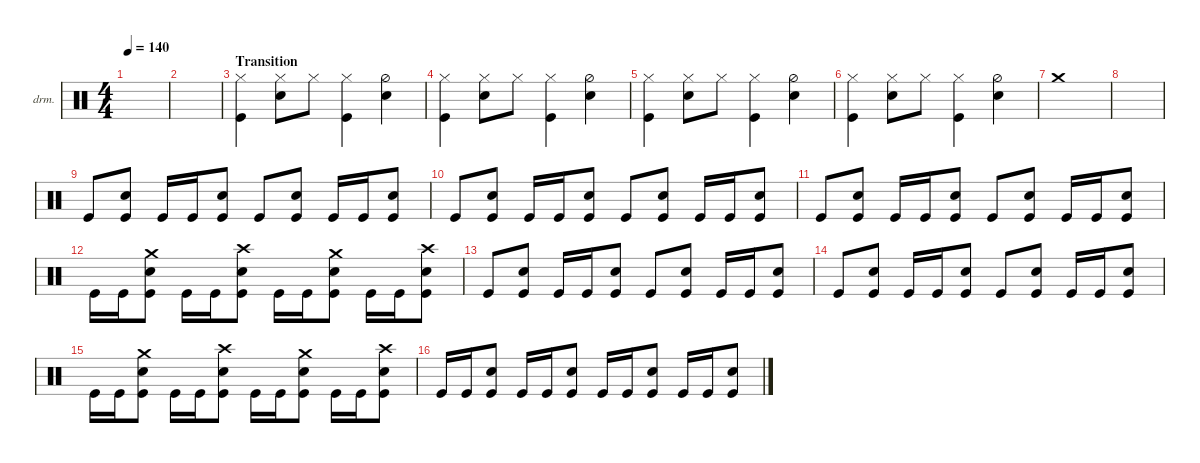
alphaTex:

\defaultSystemsLayout 4
\hideDynamics
\bracketExtendMode nobrackets
\firstSystemTrackNameOrientation horizontal
\otherSystemsTrackNameOrientation horizontal
\track ("Drumkit" "drm.") {instrument percussion}
\staff {score}
\articulation defaults
\ts (4 4)
\tempo 140
\clef neutral
\ks c
|
|
\section ("" "Transition")
("Hi-Hat (closed)" "Kick (hit)").4 ("Hi-Hat (closed)" "Snare (hit) 2").8 "Hi-Hat (closed)".8 ("Hi-Hat (closed)" "Kick (hit)").4 ("Hi-Hat (half)" "Snare (hit) 2").4 |
("Hi-Hat (closed)" "Kick (hit)").4 ("Hi-Hat (closed)" "Snare (hit) 2").8 "Hi-Hat (closed)".8 ("Hi-Hat (closed)" "Kick (hit)").4 ("Hi-Hat (half)" "Snare (hit) 2").4 |
("Hi-Hat (closed)" "Kick (hit)").4 ("Hi-Hat (closed)" "Snare (hit) 2").8 "Hi-Hat (closed)".8 ("Hi-Hat (closed)" "Kick (hit)").4 ("Hi-Hat (half)" "Snare (hit) 2").4 |
("Hi-Hat (closed)" "Kick (hit)").4 ("Hi-Hat (closed)" "Snare (hit) 2").8 "Hi-Hat (closed)".8 ("Hi-Hat (closed)" "Kick (hit)").4 ("Hi-Hat (half)" "Snare (hit) 2").4 |
"Crash medium (hit)".1 |
|
"Kick (hit)".8 ("Snare (hit) 2" "Kick (hit)").8 "Kick (hit)".16 "Kick (hit)".16 ("Snare (hit) 2" "Kick (hit)").8 "Kick (hit)".8 ("Snare (hit) 2" "Kick (hit)").8 "Kick (hit)".16 "Kick (hit)".16 ("Snare (hit) 2" "Kick (hit)").8 |
"Kick (hit)".8 ("Snare (hit) 2" "Kick (hit)").8 "Kick (hit)".16 "Kick (hit)".16 ("Snare (hit) 2" "Kick (hit)").8 "Kick (hit)".8 ("Snare (hit) 2" "Kick (hit)").8 "Kick (hit)".16 "Kick (hit)".16 ("Snare (hit) 2" "Kick (hit)").8 |
"Kick (hit)".8 ("Snare (hit) 2" "Kick (hit)").8 "Kick (hit)".16 "Kick (hit)".16 ("Snare (hit) 2" "Kick (hit)").8 "Kick (hit)".8 ("Snare (hit) 2" "Kick (hit)").8 "Kick (hit)".16 "Kick (hit)".16 ("Snare (hit) 2" "Kick (hit)").8 |
"Kick (hit)".16 "Kick (hit)".16 ("Snare (hit) 2" "Kick (hit)" "Crash medium (hit)").8 "Kick (hit)".16 "Kick (hit)".16 ("Snare (hit) 2" "Kick (hit)" "Crash high (hit)").8 "Kick (hit)".16 "Kick (hit)".16 ("Snare (hit) 2" "Kick (hit)" "Crash medium (hit)").8 "Kick (hit)".16 "Kick (hit)".16 ("Snare (hit) 2" "Kick (hit)" "Crash high (hit)").8 |
"Kick (hit)".8 ("Snare (hit) 2" "Kick (hit)").8 "Kick (hit)".16 "Kick (hit)".16 ("Snare (hit) 2" "Kick (hit)").8 "Kick (hit)".8 ("Snare (hit) 2" "Kick (hit)").8 "Kick (hit)".16 "Kick (hit)".16 ("Snare (hit) 2" "Kick (hit)").8 |
"Kick (hit)".8 ("Snare (hit) 2" "Kick (hit)").8 "Kick (hit)".16 "Kick (hit)".16 ("Snare (hit) 2" "Kick (hit)").8 "Kick (hit)".8 ("Snare (hit) 2" "Kick (hit)").8 "Kick (hit)".16 "Kick (hit)".16 ("Snare (hit) 2" "Kick (hit)").8 |
"Kick (hit)".16 "Kick (hit)".16 ("Snare (hit) 2" "Kick (hit)" "Crash medium (hit)").8 "Kick (hit)".16 "Kick (hit)".16 ("Snare (hit) 2" "Kick (hit)" "Crash high (hit)").8 "Kick (hit)".16 "Kick (hit)".16 ("Snare (hit) 2" "Kick (hit)" "Crash medium (hit)").8 "Kick (hit)".16 "Kick (hit)".16 ("Snare (hit) 2" "Kick (hit)" "Crash high (hit)").8 |
"Kick (hit)".16 "Kick (hit)".16 ("Snare (hit) 2" "Kick (hit)").8 "Kick (hit)".16 "Kick (hit)".16 ("Snare (hit) 2" "Kick (hit)").8 "Kick (hit)".16 "Kick (hit)".16 ("Snare (hit) 2" "Kick (hit)").8 "Kick (hit)".16 "Kick (hit)".16 ("Snare (hit) 2" "Kick (hit)").8
